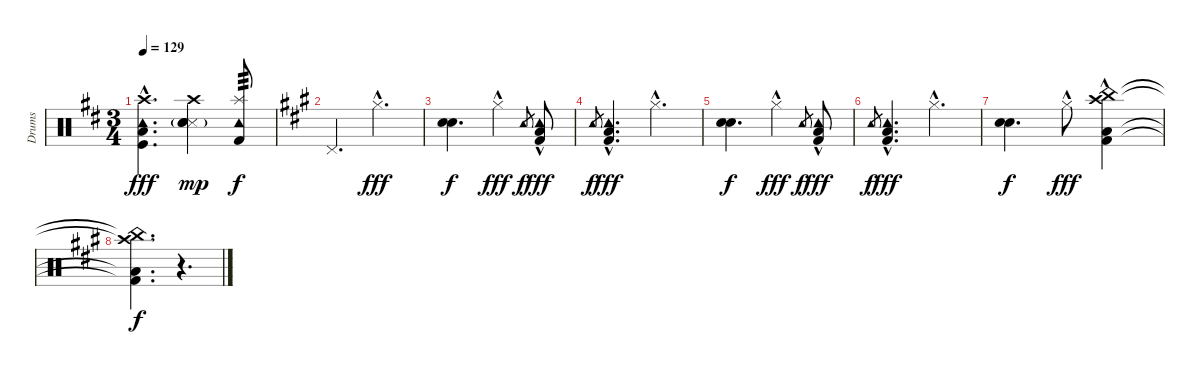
\track ("Drums" "Drums") {instrument percussion}
\staff {score}
\articulation defaults
\ts (3 4)
\tempo 129
\clef neutral
\ks bminor
("Kick (hit)"{hac} "Low Floor Tom (hit)"{hac} "Tambourine (hit)"{hac} "Crash high (hit)").4{d dy fff} ("Snare (side stick) 3"{g} "Snare (hit) 2" "Electric Snare (hit)" "Crash high (hit)").4{dy mp} ("Tambourine (hit)" "Splash (hit)" "Kick (hit) 2").8{tp 3 dy f} |
\ks f#minor "Pedal Hi-Hat (hit)".4{d} "Hi-Hat (closed)"{hac}.4{d dy fff}
|
("Snare (hit) 2" "Electric Snare (hit)").4{d dy f} "Hi-Hat (closed)"{hac}.4{dy fff} "Tambourine (hit)".8{gr dy f} ("Tambourine (hit)" "Low Floor Tom (hit)"{hac} "Kick (hit) 2"{hac}).8{dy fff} |
"Tambourine (hit)".8{gr dy f} ("Tambourine (hit)" "Low Floor Tom (hit)"{hac} "Kick (hit) 2"{hac}).4{d dy fff} "Hi-Hat (closed)"{hac}.4{d} |
("Snare (hit) 2" "Electric Snare (hit)").4{d dy f} "Hi-Hat (closed)"{hac}.4{dy fff} "Tambourine (hit)".8{gr dy f} ("Tambourine (hit)" "Low Floor Tom (hit)"{hac} "Kick (hit) 2"{hac}).8{dy fff} |
"Tambourine (hit)".8{gr dy f} ("Tambourine (hit)" "Low Floor Tom (hit)"{hac} "Kick (hit) 2"{hac}).4{d dy fff} "Hi-Hat (closed)"{hac}.4{d} |
("Snare (hit) 2" "Electric Snare (hit)").4{d dy f} "Hi-Hat (closed)"{hac}.8{dy fff} ("Crash high (hit)" "China (hit)" "Kick (hit) 2"{hac} "Low Floor Tom (hit)"{hac}).4 |
("Crash high (hit)"{t} "China (hit)"{t} "Kick (hit) 2"{t} "Low Floor Tom (hit)"{t}).4{d dy f} r.4{d}
